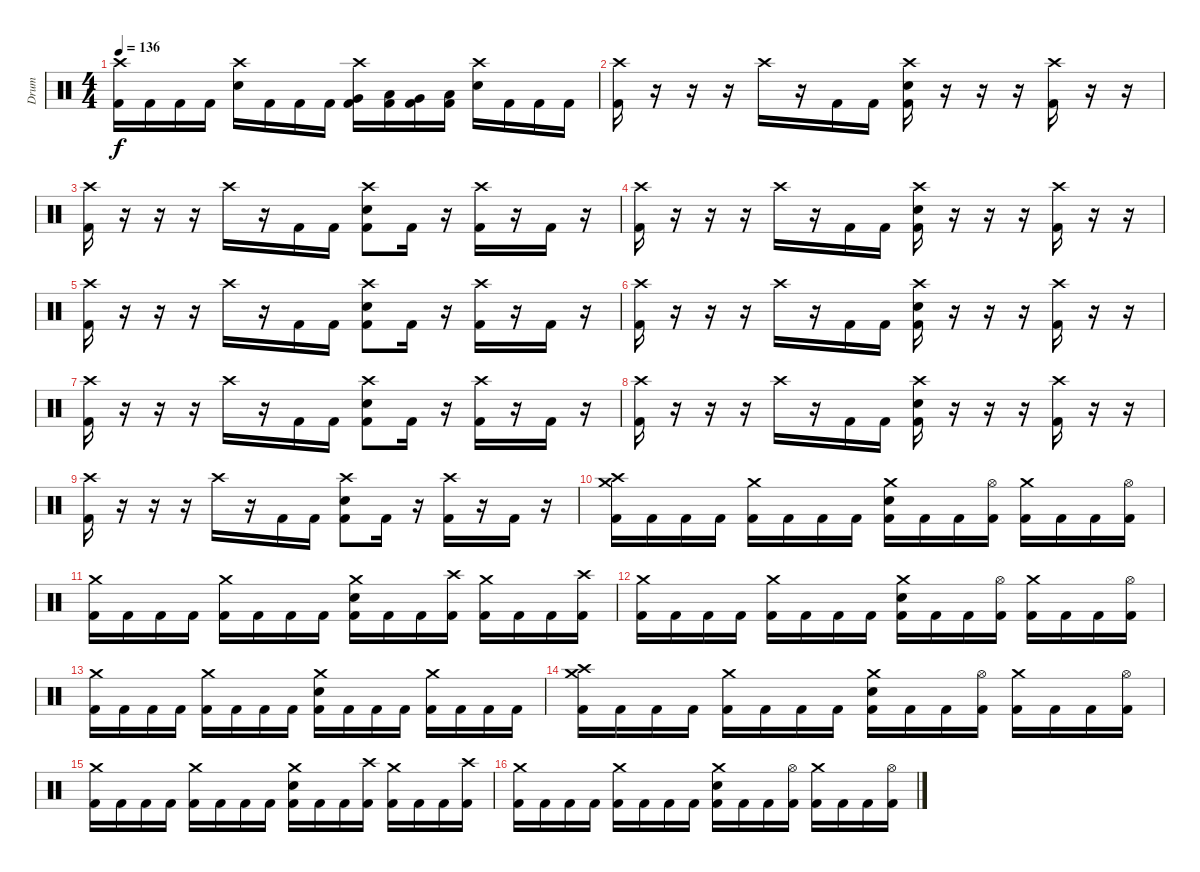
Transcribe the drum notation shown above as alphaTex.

\track ("Drum" "Drum") {instrument percussion}
\staff {score}
\articulation defaults
\ts (4 4)
\tempo 136
\clef neutral
\ks c
("Crash high (hit)" "Kick (hit) 2").16{dy f} "Kick (hit) 2".16 "Kick (hit) 2".16 "Kick (hit) 2".16 ("Crash high (hit)" "Electric Snare (hit)").16 "Kick (hit) 2".16 "Kick (hit) 2".16 "Kick (hit) 2".16 ("Crash high (hit)" "Very Low Tom (hit)" "Kick (hit) 2").16 ("Low Floor Tom (hit)" "Kick (hit) 2").16 ("Very Low Tom (hit)" "Kick (hit) 2").16 ("Low Floor Tom (hit)" "Kick (hit) 2").16 ("Crash high (hit)" "Electric Snare (hit)").16 "Kick (hit) 2".16 "Kick (hit) 2".16 "Kick (hit) 2".16 |
("Crash high (hit)" "Kick (hit) 2").16 r.16 r.16 r.16 "Crash high (hit)".16 r.16 "Kick (hit) 2".16 "Kick (hit) 2".16 ("Crash high (hit)" "Electric Snare (hit)" "Kick (hit) 2").16 r.16 r.16 r.16 ("Crash high (hit)" "Kick (hit) 2").16 r.16 r.16 |
("Crash high (hit)" "Kick (hit) 2").16 r.16 r.16 r.16 "Crash high (hit)".16 r.16 "Kick (hit) 2".16 "Kick (hit) 2".16 ("Crash high (hit)" "Electric Snare (hit)" "Kick (hit) 2").8 "Kick (hit) 2".16 r.16 ("Crash high (hit)" "Kick (hit) 2").16 r.16 "Kick (hit) 2".16 r.16 |
("Crash high (hit)" "Kick (hit) 2").16 r.16 r.16 r.16 "Crash high (hit)".16 r.16 "Kick (hit) 2".16 "Kick (hit) 2".16 ("Crash high (hit)" "Electric Snare (hit)" "Kick (hit) 2").16 r.16 r.16 r.16 ("Crash high (hit)" "Kick (hit) 2").16 r.16 r.16 |
("Crash high (hit)" "Kick (hit) 2").16 r.16 r.16 r.16 "Crash high (hit)".16 r.16 "Kick (hit) 2".16 "Kick (hit) 2".16 ("Crash high (hit)" "Electric Snare (hit)" "Kick (hit) 2").8 "Kick (hit) 2".16 r.16 ("Crash high (hit)" "Kick (hit) 2").16 r.16 "Kick (hit) 2".16 r.16 |
("Crash high (hit)" "Kick (hit) 2").16 r.16 r.16 r.16 "Crash high (hit)".16 r.16 "Kick (hit) 2".16 "Kick (hit) 2".16 ("Crash high (hit)" "Electric Snare (hit)" "Kick (hit) 2").16 r.16 r.16 r.16 ("Crash high (hit)" "Kick (hit) 2").16 r.16 r.16 |
("Crash high (hit)" "Kick (hit) 2").16 r.16 r.16 r.16 "Crash high (hit)".16 r.16 "Kick (hit) 2".16 "Kick (hit) 2".16 ("Crash high (hit)" "Electric Snare (hit)" "Kick (hit) 2").8 "Kick (hit) 2".16 r.16 ("Crash high (hit)" "Kick (hit) 2").16 r.16 "Kick (hit) 2".16 r.16 |
("Crash high (hit)" "Kick (hit) 2").16 r.16 r.16 r.16 "Crash high (hit)".16 r.16 "Kick (hit) 2".16 "Kick (hit) 2".16 ("Crash high (hit)" "Electric Snare (hit)" "Kick (hit) 2").16 r.16 r.16 r.16 ("Crash high (hit)" "Kick (hit) 2").16 r.16 r.16 |
("Crash high (hit)" "Kick (hit) 2").16 r.16 r.16 r.16 "Crash high (hit)".16 r.16 "Kick (hit) 2".16 "Kick (hit) 2".16 ("Crash high (hit)" "Electric Snare (hit)" "Kick (hit) 2").8 "Kick (hit) 2".16 r.16 ("Crash high (hit)" "Kick (hit) 2").16 r.16 "Kick (hit) 2".16 r.16 |
("Crash high (hit)" "Crash medium (hit)" "Kick (hit) 2").16 "Kick (hit) 2".16 "Kick (hit) 2".16 "Kick (hit) 2".16 ("Crash medium (hit)" "Kick (hit) 2").16 "Kick (hit) 2".16 "Kick (hit) 2".16 "Kick (hit) 2".16 ("Crash medium (hit)" "Electric Snare (hit)" "Kick (hit) 2").16 "Kick (hit) 2".16 "Kick (hit) 2".16 ("Hi-Hat (open)" "Kick (hit) 2").16 ("Crash medium (hit)" "Kick (hit) 2").16 "Kick (hit) 2".16 "Kick (hit) 2".16 ("Hi-Hat (open)" "Kick (hit) 2").16 |
("Crash medium (hit)" "Kick (hit) 2").16 "Kick (hit) 2".16 "Kick (hit) 2".16 "Kick (hit) 2".16 ("Crash medium (hit)" "Kick (hit) 2").16 "Kick (hit) 2".16 "Kick (hit) 2".16 "Kick (hit) 2".16 ("Crash medium (hit)" "Electric Snare (hit)" "Kick (hit) 2").16 "Kick (hit) 2".16 "Kick (hit) 2".16 ("Crash high (hit)" "Kick (hit) 2").16 ("Crash medium (hit)" "Kick (hit) 2").16 "Kick (hit) 2".16 "Kick (hit) 2".16 ("Crash high (hit)" "Kick (hit) 2").16 |
("Crash medium (hit)" "Kick (hit) 2").16 "Kick (hit) 2".16 "Kick (hit) 2".16 "Kick (hit) 2".16 ("Crash medium (hit)" "Kick (hit) 2").16 "Kick (hit) 2".16 "Kick (hit) 2".16 "Kick (hit) 2".16 ("Crash medium (hit)" "Electric Snare (hit)" "Kick (hit) 2").16 "Kick (hit) 2".16 "Kick (hit) 2".16 ("Hi-Hat (open)" "Kick (hit) 2").16 ("Crash medium (hit)" "Kick (hit) 2").16 "Kick (hit) 2".16 "Kick (hit) 2".16 ("Hi-Hat (open)" "Kick (hit) 2").16 |
("Crash medium (hit)" "Kick (hit) 2").16 "Kick (hit) 2".16 "Kick (hit) 2".16 "Kick (hit) 2".16 ("Crash medium (hit)" "Kick (hit) 2").16 "Kick (hit) 2".16 "Kick (hit) 2".16 "Kick (hit) 2".16 ("Crash medium (hit)" "Electric Snare (hit)" "Kick (hit) 2").16 "Kick (hit) 2".16 "Kick (hit) 2".16 "Kick (hit) 2".16 ("Crash medium (hit)" "Kick (hit) 2").16 "Kick (hit) 2".16 "Kick (hit) 2".16 "Kick (hit) 2".16 |
("Crash high (hit)" "Crash medium (hit)" "Kick (hit) 2").16 "Kick (hit) 2".16 "Kick (hit) 2".16 "Kick (hit) 2".16 ("Crash medium (hit)" "Kick (hit) 2").16 "Kick (hit) 2".16 "Kick (hit) 2".16 "Kick (hit) 2".16 ("Crash medium (hit)" "Electric Snare (hit)" "Kick (hit) 2").16 "Kick (hit) 2".16 "Kick (hit) 2".16 ("Hi-Hat (open)" "Kick (hit) 2").16 ("Crash medium (hit)" "Kick (hit) 2").16 "Kick (hit) 2".16 "Kick (hit) 2".16 ("Hi-Hat (open)" "Kick (hit) 2").16 |
("Crash medium (hit)" "Kick (hit) 2").16 "Kick (hit) 2".16 "Kick (hit) 2".16 "Kick (hit) 2".16 ("Crash medium (hit)" "Kick (hit) 2").16 "Kick (hit) 2".16 "Kick (hit) 2".16 "Kick (hit) 2".16 ("Crash medium (hit)" "Electric Snare (hit)" "Kick (hit) 2").16 "Kick (hit) 2".16 "Kick (hit) 2".16 ("Crash high (hit)" "Kick (hit) 2").16 ("Crash medium (hit)" "Kick (hit) 2").16 "Kick (hit) 2".16 "Kick (hit) 2".16 ("Crash high (hit)" "Kick (hit) 2").16 |
("Crash medium (hit)" "Kick (hit) 2").16 "Kick (hit) 2".16 "Kick (hit) 2".16 "Kick (hit) 2".16 ("Crash medium (hit)" "Kick (hit) 2").16 "Kick (hit) 2".16 "Kick (hit) 2".16 "Kick (hit) 2".16 ("Crash medium (hit)" "Electric Snare (hit)" "Kick (hit) 2").16 "Kick (hit) 2".16 "Kick (hit) 2".16 ("Hi-Hat (open)" "Kick (hit) 2").16 ("Crash medium (hit)" "Kick (hit) 2").16 "Kick (hit) 2".16 "Kick (hit) 2".16 ("Hi-Hat (open)" "Kick (hit) 2").16
